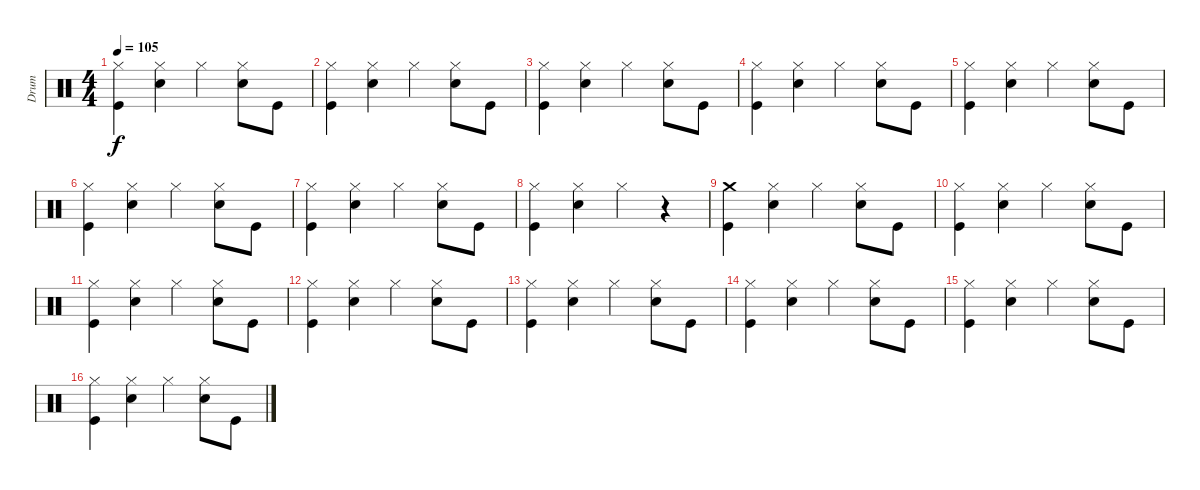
\track ("Drum" "Drum") {instrument percussion}
\staff {score}
\articulation defaults
\ts (4 4)
\tempo 105
\clef neutral
\ks c
("Hi-Hat (closed)" "Kick (hit)").4{dy f} ("Hi-Hat (closed)" "Snare (hit) 2").4 "Hi-Hat (closed)".4 ("Hi-Hat (closed)" "Snare (hit) 2").8 "Kick (hit)".8 |
("Hi-Hat (closed)" "Kick (hit)").4 ("Hi-Hat (closed)" "Snare (hit) 2").4 "Hi-Hat (closed)".4 ("Hi-Hat (closed)" "Snare (hit) 2").8 "Kick (hit)".8 |
("Hi-Hat (closed)" "Kick (hit)").4 ("Hi-Hat (closed)" "Snare (hit) 2").4 "Hi-Hat (closed)".4 ("Hi-Hat (closed)" "Snare (hit) 2").8 "Kick (hit)".8 |
("Hi-Hat (closed)" "Kick (hit)").4 ("Hi-Hat (closed)" "Snare (hit) 2").4 "Hi-Hat (closed)".4 ("Hi-Hat (closed)" "Snare (hit) 2").8 "Kick (hit)".8 |
("Hi-Hat (closed)" "Kick (hit)").4 ("Hi-Hat (closed)" "Snare (hit) 2").4 "Hi-Hat (closed)".4 ("Hi-Hat (closed)" "Snare (hit) 2").8 "Kick (hit)".8 |
("Hi-Hat (closed)" "Kick (hit)").4 ("Hi-Hat (closed)" "Snare (hit) 2").4 "Hi-Hat (closed)".4 ("Hi-Hat (closed)" "Snare (hit) 2").8 "Kick (hit)".8 |
("Hi-Hat (closed)" "Kick (hit)").4 ("Hi-Hat (closed)" "Snare (hit) 2").4 "Hi-Hat (closed)".4 ("Hi-Hat (closed)" "Snare (hit) 2").8 "Kick (hit)".8 |
("Hi-Hat (closed)" "Kick (hit)").4 ("Hi-Hat (closed)" "Snare (hit) 2").4 "Hi-Hat (closed)".4 r.4 |
("Crash medium (hit)" "Kick (hit)").4 ("Hi-Hat (closed)" "Snare (hit) 2").4 "Hi-Hat (closed)".4 ("Hi-Hat (closed)" "Snare (hit) 2").8 "Kick (hit)".8 |
("Hi-Hat (closed)" "Kick (hit)").4 ("Hi-Hat (closed)" "Snare (hit) 2").4 "Hi-Hat (closed)".4 ("Hi-Hat (closed)" "Snare (hit) 2").8 "Kick (hit)".8 |
("Hi-Hat (closed)" "Kick (hit)").4 ("Hi-Hat (closed)" "Snare (hit) 2").4 "Hi-Hat (closed)".4 ("Hi-Hat (closed)" "Snare (hit) 2").8 "Kick (hit)".8 |
("Hi-Hat (closed)" "Kick (hit)").4 ("Hi-Hat (closed)" "Snare (hit) 2").4 "Hi-Hat (closed)".4 ("Hi-Hat (closed)" "Snare (hit) 2").8 "Kick (hit)".8 |
("Hi-Hat (closed)" "Kick (hit)").4 ("Hi-Hat (closed)" "Snare (hit) 2").4 "Hi-Hat (closed)".4 ("Hi-Hat (closed)" "Snare (hit) 2").8 "Kick (hit)".8 |
("Hi-Hat (closed)" "Kick (hit)").4 ("Hi-Hat (closed)" "Snare (hit) 2").4 "Hi-Hat (closed)".4 ("Hi-Hat (closed)" "Snare (hit) 2").8 "Kick (hit)".8 |
("Hi-Hat (closed)" "Kick (hit)").4 ("Hi-Hat (closed)" "Snare (hit) 2").4 "Hi-Hat (closed)".4 ("Hi-Hat (closed)" "Snare (hit) 2").8 "Kick (hit)".8 |
("Hi-Hat (closed)" "Kick (hit)").4 ("Hi-Hat (closed)" "Snare (hit) 2").4 "Hi-Hat (closed)".4 ("Hi-Hat (closed)" "Snare (hit) 2").8 "Kick (hit)".8
